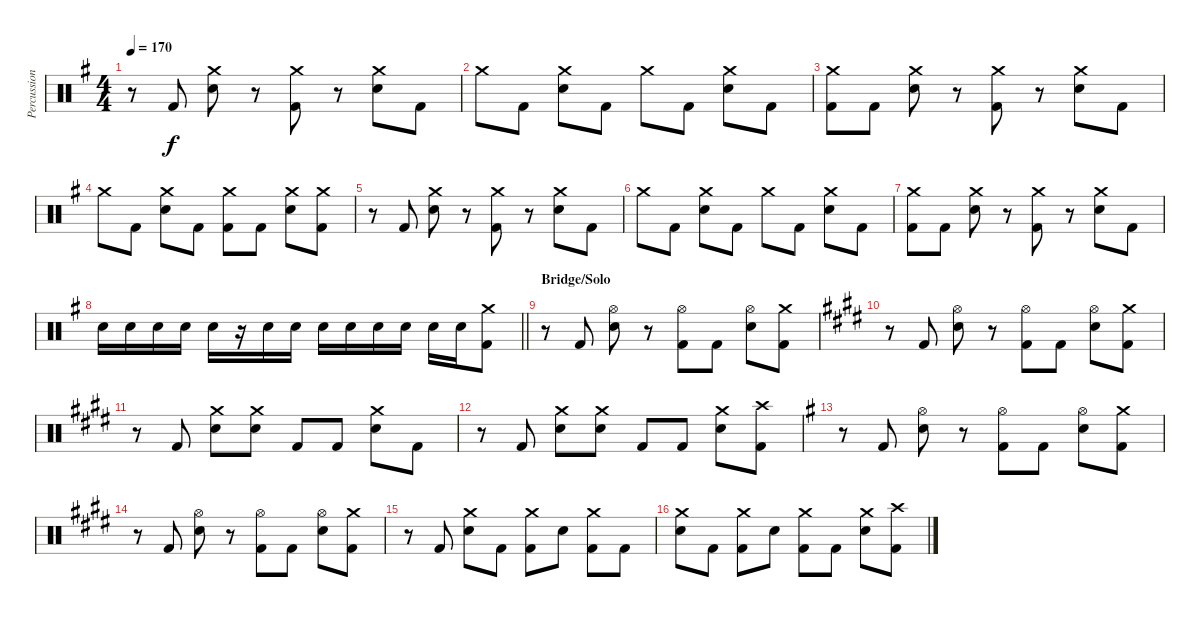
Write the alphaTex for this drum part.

\track ("Percussion" "Percussion") {instrument percussion}
\staff {score}
\articulation defaults
\ts (4 4)
\tempo 170
\clef neutral
\ks g
r.8{dy f} "Kick (hit) 2".8 ("Crash medium (hit)" "Electric Snare (hit)").8 r.8 ("Crash medium (hit)" "Kick (hit) 2").8 r.8 ("Crash medium (hit)" "Electric Snare (hit)").8 "Kick (hit) 2".8 |
"Crash medium (hit)".8 "Kick (hit) 2".8 ("Crash medium (hit)" "Electric Snare (hit)").8 "Kick (hit) 2".8 "Crash medium (hit)".8 "Kick (hit) 2".8 ("Crash medium (hit)" "Electric Snare (hit)").8 "Kick (hit) 2".8 |
("Crash medium (hit)" "Kick (hit) 2").8 "Kick (hit) 2".8 ("Crash medium (hit)" "Electric Snare (hit)").8 r.8 ("Crash medium (hit)" "Kick (hit) 2").8 r.8 ("Crash medium (hit)" "Electric Snare (hit)").8 "Kick (hit) 2".8 |
"Crash medium (hit)".8 "Kick (hit) 2".8 ("Crash medium (hit)" "Electric Snare (hit)").8 "Kick (hit) 2".8 ("Crash medium (hit)" "Kick (hit) 2").8 "Kick (hit) 2".8 ("Crash medium (hit)" "Electric Snare (hit)").8 ("Crash medium (hit)" "Kick (hit) 2").8 |
r.8 "Kick (hit) 2".8 ("Crash medium (hit)" "Electric Snare (hit)").8 r.8 ("Crash medium (hit)" "Kick (hit) 2").8 r.8 ("Crash medium (hit)" "Electric Snare (hit)").8 "Kick (hit) 2".8 |
"Crash medium (hit)".8 "Kick (hit) 2".8 ("Crash medium (hit)" "Electric Snare (hit)").8 "Kick (hit) 2".8 "Crash medium (hit)".8 "Kick (hit) 2".8 ("Crash medium (hit)" "Electric Snare (hit)").8 "Kick (hit) 2".8 |
("Crash medium (hit)" "Kick (hit) 2").8 "Kick (hit) 2".8 ("Crash medium (hit)" "Electric Snare (hit)").8 r.8 ("Crash medium (hit)" "Kick (hit) 2").8 r.8 ("Crash medium (hit)" "Electric Snare (hit)").8 "Kick (hit) 2".8 |
\barLineRight lightlight "Electric Snare (hit)".16 "Electric Snare (hit)".16 "Electric Snare (hit)".16 "Electric Snare (hit)".16 "Electric Snare (hit)".16
r.16 "Electric Snare (hit)".16 "Electric Snare (hit)".16 "Electric Snare (hit)".16 "Electric Snare (hit)".16 "Electric Snare (hit)".16 "Electric Snare (hit)".16 "Electric Snare (hit)".16 "Electric Snare (hit)".16 ("Crash medium (hit)" "Kick (hit) 2").8 |
\section ("" "Bridge/Solo")
r.8 "Kick (hit) 2".8 ("Hi-Hat (open)" "Electric Snare (hit)").8 r.8 ("Hi-Hat (open)" "Kick (hit) 2").8 "Kick (hit) 2".8 ("Hi-Hat (open)" "Electric Snare (hit)").8 ("Crash medium (hit)" "Kick (hit) 2").8 |
\ks c#minor
r.8 "Kick (hit) 2".8 ("Hi-Hat (open)" "Electric Snare (hit)").8 r.8 ("Hi-Hat (open)" "Kick (hit) 2").8 "Kick (hit) 2".8 ("Hi-Hat (open)" "Electric Snare (hit)").8 ("Crash medium (hit)" "Kick (hit) 2").8 |
r.8 "Kick (hit) 2".8 ("Crash medium (hit)" "Electric Snare (hit)").8 ("Crash medium (hit)" "Electric Snare (hit)").8 "Kick (hit) 2".8 "Kick (hit) 2".8 ("Crash medium (hit)" "Electric Snare (hit)").8 "Kick (hit) 2".8 |
r.8 "Kick (hit) 2".8 ("Crash medium (hit)" "Electric Snare (hit)").8 ("Crash medium (hit)" "Electric Snare (hit)").8 "Kick (hit) 2".8 "Kick (hit) 2".8 ("Crash medium (hit)" "Electric Snare (hit)").8 ("Crash high (hit)" "Kick (hit) 2").8 |
\ks g
r.8 "Kick (hit) 2".8 ("Hi-Hat (open)" "Electric Snare (hit)").8 r.8 ("Hi-Hat (open)" "Kick (hit) 2").8 "Kick (hit) 2".8 ("Hi-Hat (open)" "Electric Snare (hit)").8 ("Crash medium (hit)" "Kick (hit) 2").8 |
\ks c#minor
r.8 "Kick (hit) 2".8 ("Hi-Hat (open)" "Electric Snare (hit)").8 r.8 ("Hi-Hat (open)" "Kick (hit) 2").8 "Kick (hit) 2".8 ("Hi-Hat (open)" "Electric Snare (hit)").8 ("Crash medium (hit)" "Kick (hit) 2").8 |
r.8 "Kick (hit) 2".8 ("Crash medium (hit)" "Electric Snare (hit)").8 "Kick (hit) 2".8 ("Crash medium (hit)" "Kick (hit) 2").8 "Electric Snare (hit)".8 ("Crash medium (hit)" "Kick (hit) 2").8 "Kick (hit) 2".8 |
("Crash medium (hit)" "Electric Snare (hit)").8 "Kick (hit) 2".8 ("Crash medium (hit)" "Kick (hit) 2").8 "Electric Snare (hit)".8 ("Crash medium (hit)" "Kick (hit) 2").8 "Kick (hit) 2".8 ("Crash medium (hit)" "Electric Snare (hit)").8 ("Crash high (hit)" "Kick (hit) 2").8
